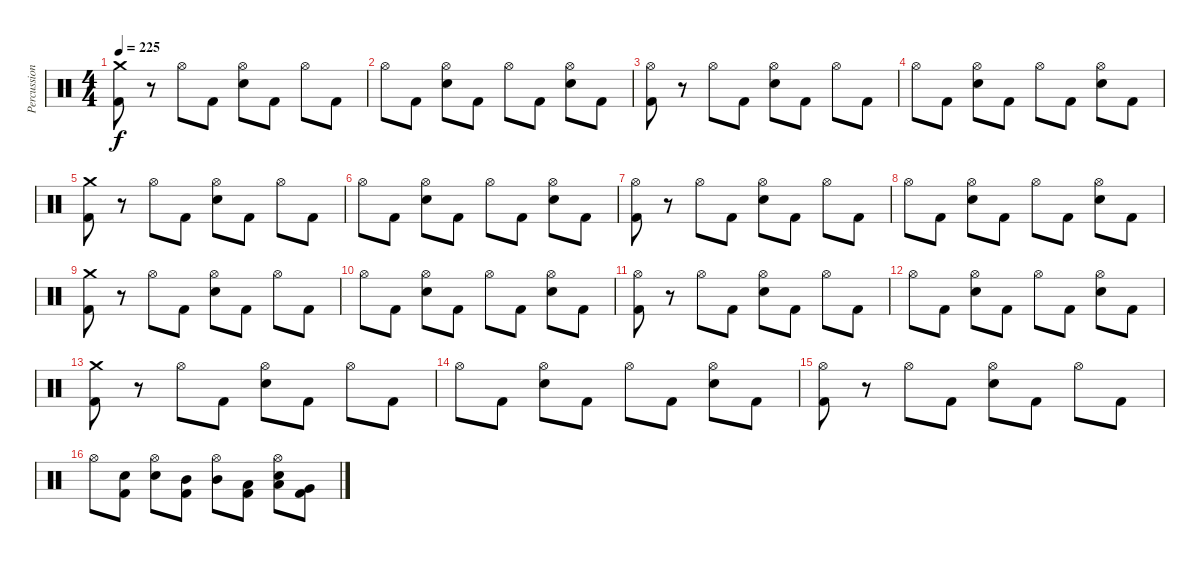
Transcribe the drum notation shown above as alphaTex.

\track ("Percussion" "Percussion") {instrument percussion}
\staff {score}
\articulation defaults
\ts (4 4)
\tempo 225
\clef neutral
\ks c
("Crash medium (hit)" "Kick (hit) 2").8{dy f} r.8 "Hi-Hat (open)".8 "Kick (hit) 2".8 ("Hi-Hat (open)" "Electric Snare (hit)").8 "Kick (hit) 2".8 "Hi-Hat (open)".8 "Kick (hit) 2".8 |
"Hi-Hat (open)".8 "Kick (hit) 2".8 ("Hi-Hat (open)" "Electric Snare (hit)").8 "Kick (hit) 2".8 "Hi-Hat (open)".8 "Kick (hit) 2".8 ("Hi-Hat (open)" "Electric Snare (hit)").8 "Kick (hit) 2".8 |
("Hi-Hat (open)" "Kick (hit) 2").8 r.8 "Hi-Hat (open)".8 "Kick (hit) 2".8 ("Hi-Hat (open)" "Electric Snare (hit)").8 "Kick (hit) 2".8 "Hi-Hat (open)".8 "Kick (hit) 2".8 |
"Hi-Hat (open)".8 "Kick (hit) 2".8 ("Hi-Hat (open)" "Electric Snare (hit)").8 "Kick (hit) 2".8 "Hi-Hat (open)".8 "Kick (hit) 2".8 ("Hi-Hat (open)" "Electric Snare (hit)").8 "Kick (hit) 2".8 |
("Crash medium (hit)" "Kick (hit) 2").8 r.8 "Hi-Hat (open)".8 "Kick (hit) 2".8 ("Hi-Hat (open)" "Electric Snare (hit)").8 "Kick (hit) 2".8 "Hi-Hat (open)".8 "Kick (hit) 2".8 |
"Hi-Hat (open)".8 "Kick (hit) 2".8 ("Hi-Hat (open)" "Electric Snare (hit)").8 "Kick (hit) 2".8 "Hi-Hat (open)".8 "Kick (hit) 2".8 ("Hi-Hat (open)" "Electric Snare (hit)").8 "Kick (hit) 2".8 |
("Hi-Hat (open)" "Kick (hit) 2").8 r.8 "Hi-Hat (open)".8 "Kick (hit) 2".8 ("Hi-Hat (open)" "Electric Snare (hit)").8 "Kick (hit) 2".8 "Hi-Hat (open)".8 "Kick (hit) 2".8 |
"Hi-Hat (open)".8 "Kick (hit) 2".8 ("Hi-Hat (open)" "Electric Snare (hit)").8 "Kick (hit) 2".8 "Hi-Hat (open)".8 "Kick (hit) 2".8 ("Hi-Hat (open)" "Electric Snare (hit)").8 "Kick (hit) 2".8 |
("Crash medium (hit)" "Kick (hit) 2").8 r.8 "Hi-Hat (open)".8 "Kick (hit) 2".8 ("Hi-Hat (open)" "Electric Snare (hit)").8 "Kick (hit) 2".8 "Hi-Hat (open)".8 "Kick (hit) 2".8 |
"Hi-Hat (open)".8 "Kick (hit) 2".8 ("Hi-Hat (open)" "Electric Snare (hit)").8 "Kick (hit) 2".8 "Hi-Hat (open)".8 "Kick (hit) 2".8 ("Hi-Hat (open)" "Electric Snare (hit)").8 "Kick (hit) 2".8 |
("Hi-Hat (open)" "Kick (hit) 2").8 r.8 "Hi-Hat (open)".8 "Kick (hit) 2".8 ("Hi-Hat (open)" "Electric Snare (hit)").8 "Kick (hit) 2".8 "Hi-Hat (open)".8 "Kick (hit) 2".8 |
"Hi-Hat (open)".8 "Kick (hit) 2".8 ("Hi-Hat (open)" "Electric Snare (hit)").8 "Kick (hit) 2".8 "Hi-Hat (open)".8 "Kick (hit) 2".8 ("Hi-Hat (open)" "Electric Snare (hit)").8 "Kick (hit) 2".8 |
("Crash medium (hit)" "Kick (hit) 2").8 r.8 "Hi-Hat (open)".8 "Kick (hit) 2".8 ("Hi-Hat (open)" "Electric Snare (hit)").8 "Kick (hit) 2".8 "Hi-Hat (open)".8 "Kick (hit) 2".8 |
"Hi-Hat (open)".8 "Kick (hit) 2".8 ("Hi-Hat (open)" "Electric Snare (hit)").8 "Kick (hit) 2".8 "Hi-Hat (open)".8 "Kick (hit) 2".8 ("Hi-Hat (open)" "Electric Snare (hit)").8 "Kick (hit) 2".8 |
("Hi-Hat (open)" "Kick (hit) 2").8 r.8 "Hi-Hat (open)".8 "Kick (hit) 2".8 ("Hi-Hat (open)" "Electric Snare (hit)").8 "Kick (hit) 2".8 "Hi-Hat (open)".8 "Kick (hit) 2".8 |
"Hi-Hat (open)".8 ("Electric Snare (hit)" "Kick (hit) 2").8 ("Hi-Hat (open)" "Electric Snare (hit)").8 ("Mid Tom (hit)" "Kick (hit) 2").8 ("Hi-Hat (open)" "Mid Tom (hit)").8 ("Low Tom (hit)" "Kick (hit) 2").8 ("Hi-Hat (open)" "Electric Snare (hit)" "Low Tom (hit)").8 ("Very Low Tom (hit)" "Kick (hit) 2").8
